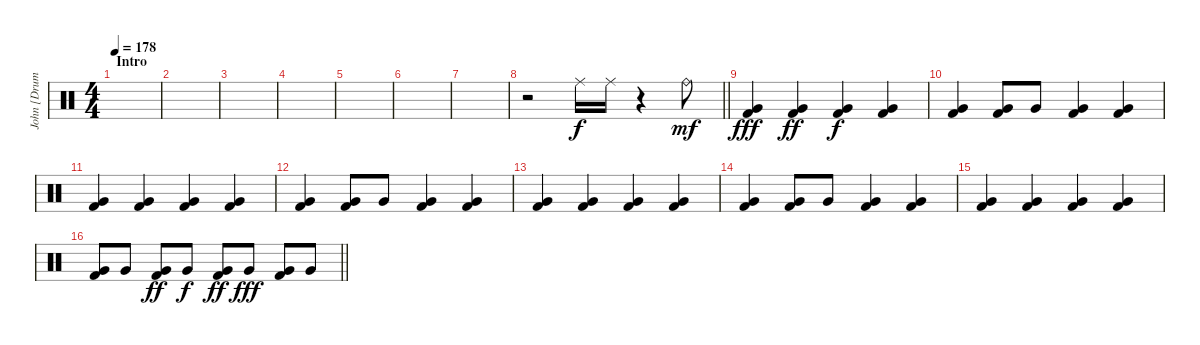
\track ("John [Drums]" "John [Drum") {instrument percussion}
\staff {score}
\articulation defaults
\ts (4 4)
\section ("" "Intro")
\tempo 178
\clef neutral
\ks c
|
|
|
|
|
|
|
\barLineRight lightlight
r.2 "Ride (middle)".16 "Ride (middle)".16 r.4 "Ride (bell)".8{dy mf} |
("Very Low Tom (hit)" "Kick (hit) 2").4{dy fff balance 11} ("Very Low Tom (hit)" "Kick (hit) 2").4{dy ff} ("Very Low Tom (hit)" "Kick (hit) 2").4{dy f} ("Very Low Tom (hit)" "Kick (hit) 2").4 |
("Very Low Tom (hit)" "Kick (hit) 2").4 ("Very Low Tom (hit)" "Kick (hit) 2").8 "Very Low Tom (hit)".8 ("Very Low Tom (hit)" "Kick (hit) 2").4 ("Very Low Tom (hit)" "Kick (hit) 2").4 |
("Very Low Tom (hit)" "Kick (hit) 2").4 ("Very Low Tom (hit)" "Kick (hit) 2").4 ("Very Low Tom (hit)" "Kick (hit) 2").4 ("Very Low Tom (hit)" "Kick (hit) 2").4 |
("Very Low Tom (hit)" "Kick (hit) 2").4 ("Very Low Tom (hit)" "Kick (hit) 2").8 "Very Low Tom (hit)".8 ("Very Low Tom (hit)" "Kick (hit) 2").4 ("Very Low Tom (hit)" "Kick (hit) 2").4 |
("Very Low Tom (hit)" "Kick (hit) 2").4 ("Very Low Tom (hit)" "Kick (hit) 2").4 ("Very Low Tom (hit)" "Kick (hit) 2").4 ("Very Low Tom (hit)" "Kick (hit) 2").4 |
("Very Low Tom (hit)" "Kick (hit) 2").4 ("Very Low Tom (hit)" "Kick (hit) 2").8 "Very Low Tom (hit)".8 ("Very Low Tom (hit)" "Kick (hit) 2").4 ("Very Low Tom (hit)" "Kick (hit) 2").4 |
("Very Low Tom (hit)" "Kick (hit) 2").4 ("Very Low Tom (hit)" "Kick (hit) 2").4 ("Very Low Tom (hit)" "Kick (hit) 2").4 ("Very Low Tom (hit)" "Kick (hit) 2").4 |
\barLineRight lightlight
("Very Low Tom (hit)" "Kick (hit) 2").8 "Very Low Tom (hit)".8 ("Very Low Tom (hit)" "Kick (hit) 2").8{dy ff} "Very Low Tom (hit)".8{dy f} ("Very Low Tom (hit)" "Kick (hit) 2").8{dy ff} "Very Low Tom (hit)".8{dy fff} ("Very Low Tom (hit)" "Kick (hit) 2").8 "Very Low Tom (hit)".8
